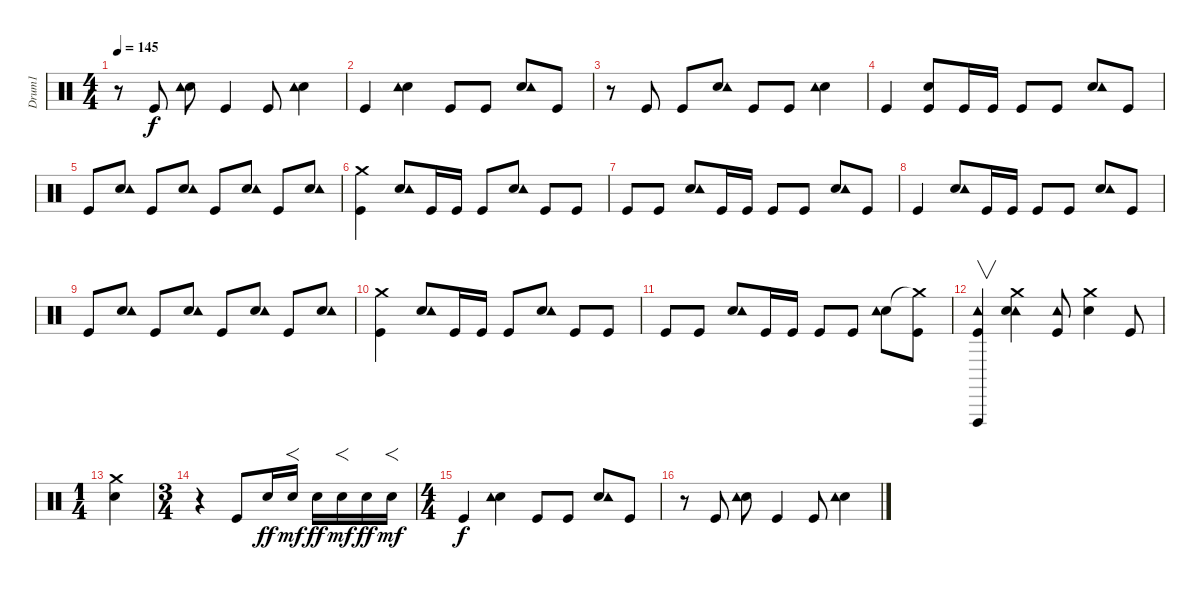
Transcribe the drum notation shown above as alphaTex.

\track ("Drum1" "Drum1") {instrument percussion}
\staff {score}
\articulation defaults
\ts (4 4)
\tempo 145
\clef neutral
\ks c
r.8{dy f} "Kick (hit)".8 ("Snare (hit) 2" "Tambourine (hit)").8 "Kick (hit)".4 "Kick (hit)".8 ("Snare (hit) 2" "Tambourine (hit)").4 |
"Kick (hit)".4 ("Snare (hit) 2" "Tambourine (hit)").4 "Kick (hit)".8 "Kick (hit)".8 ("Snare (hit) 2" "Tambourine (hit)").8 "Kick (hit)".8 |
r.8 "Kick (hit)".8 "Kick (hit)".8 ("Snare (hit) 2" "Tambourine (hit)").8 "Kick (hit)".8 "Kick (hit)".8 ("Snare (hit) 2" "Tambourine (hit)").4 |
"Kick (hit)".4 ("Snare (hit) 2" "Kick (hit)").8 "Kick (hit)".16 "Kick (hit)".16 "Kick (hit)".8 "Kick (hit)".8 ("Snare (hit) 2" "Tambourine (hit)").8 "Kick (hit)".8 |
"Kick (hit)".8 ("Snare (hit) 2" "Tambourine (hit)").8 "Kick (hit)".8 ("Snare (hit) 2" "Tambourine (hit)").8 "Kick (hit)".8 ("Snare (hit) 2" "Tambourine (hit)").8 "Kick (hit)".8 ("Snare (hit) 2" "Tambourine (hit)").8 |
("Kick (hit)" "Crash medium (hit)").4 ("Snare (hit) 2" "Tambourine (hit)").8 "Kick (hit)".16 "Kick (hit)".16 "Kick (hit)".8 ("Snare (hit) 2" "Tambourine (hit)").8 "Kick (hit)".8 "Kick (hit)".8 |
"Kick (hit)".8 "Kick (hit)".8 ("Snare (hit) 2" "Tambourine (hit)").8 "Kick (hit)".16 "Kick (hit)".16 "Kick (hit)".8 "Kick (hit)".8 ("Snare (hit) 2" "Tambourine (hit)").8 "Kick (hit)".8 |
"Kick (hit)".4 ("Snare (hit) 2" "Tambourine (hit)").8 "Kick (hit)".16 "Kick (hit)".16 "Kick (hit)".8 "Kick (hit)".8 ("Snare (hit) 2" "Tambourine (hit)").8 "Kick (hit)".8 |
"Kick (hit)".8 ("Snare (hit) 2" "Tambourine (hit)").8 "Kick (hit)".8 ("Snare (hit) 2" "Tambourine (hit)").8 "Kick (hit)".8 ("Snare (hit) 2" "Tambourine (hit)").8 "Kick (hit)".8 ("Snare (hit) 2" "Tambourine (hit)").8 |
("Kick (hit)" "Crash medium (hit)").4 ("Snare (hit) 2" "Tambourine (hit)").8 "Kick (hit)".16 "Kick (hit)".16 "Kick (hit)".8 ("Snare (hit) 2" "Tambourine (hit)").8 "Kick (hit)".8 "Kick (hit)".8 |
"Kick (hit)".8 "Kick (hit)".8 ("Snare (hit) 2" "Tambourine (hit)").8 "Kick (hit)".16 "Kick (hit)".16 "Kick (hit)".8 "Kick (hit)".8 ("Snare (hit) 2" "Tambourine (hit)").8 ("Kick (hit)" "Crash medium (hit)"{t}).8 |
("Tambourine (hit)" "Kick (hit)" "Vibraslap (hit)").4{v} ("Tambourine (hit)" "Snare (hit) 2" "Crash medium (hit)").4 ("Tambourine (hit)" "Kick (hit)").8 ("Snare (hit) 2" "Crash medium (hit)").4 "Kick (hit)".8 |
\ts (1 4)
("Snare (hit) 2" "Crash medium (hit)").4 |
\ts (3 4)
r.4 "Kick (hit)".8 "Snare (hit) 2".16{dy ff} "Snare (hit) 2".16{f dy mf} "Snare (hit) 2".16{dy ff} "Snare (hit) 2".16{f dy mf} "Snare (hit) 2".16{dy ff} "Snare (hit) 2".16{f dy mf} |
\ts (4 4)
"Kick (hit)".4{dy f} ("Snare (hit) 2" "Tambourine (hit)").4 "Kick (hit)".8 "Kick (hit)".8 ("Snare (hit) 2" "Tambourine (hit)").8 "Kick (hit)".8 |
r.8 "Kick (hit)".8 ("Snare (hit) 2" "Tambourine (hit)").8 "Kick (hit)".4 "Kick (hit)".8 ("Snare (hit) 2" "Tambourine (hit)").4
